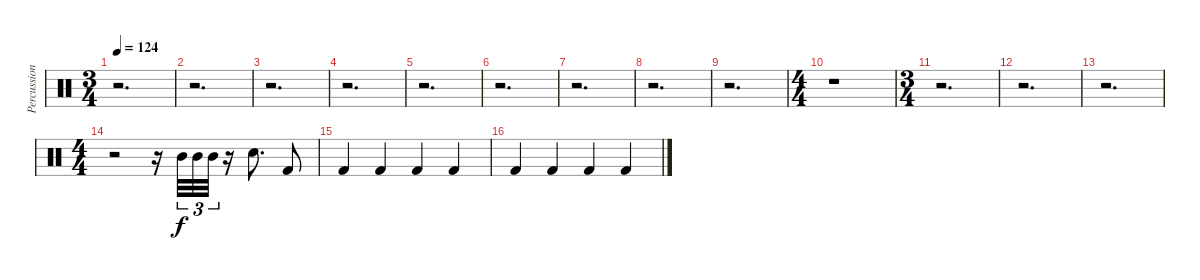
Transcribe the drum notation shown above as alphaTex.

\track ("Percussion" "Percussion") {instrument percussion}
\staff {score}
\articulation defaults
\ts (3 4)
\tempo 124
\clef neutral
\ks c
r.2{d dy f} |
r.2{d} |
r.2{d} |
r.2{d} |
r.2{d} |
r.2{d} |
r.2{d} |
r.2{d} |
r.2{d} |
\ts (4 4)
r.1 |
\ts (3 4)
r.2{d} |
r.2{d} |
r.2{d} |
\ts (4 4)
r.2 r.16 "Mid Tom (hit)".32{tu (3 2)} "Mid Tom (hit)".32{tu (3 2)} "Mid Tom (hit)".32{tu (3 2)} r.16 "Snare (hit) 2".8{d} "Kick (hit) 2".8 |
"Kick (hit) 2".4 "Kick (hit) 2".4 "Kick (hit) 2".4 "Kick (hit) 2".4 |
"Kick (hit) 2".4 "Kick (hit) 2".4 "Kick (hit) 2".4 "Kick (hit) 2".4
